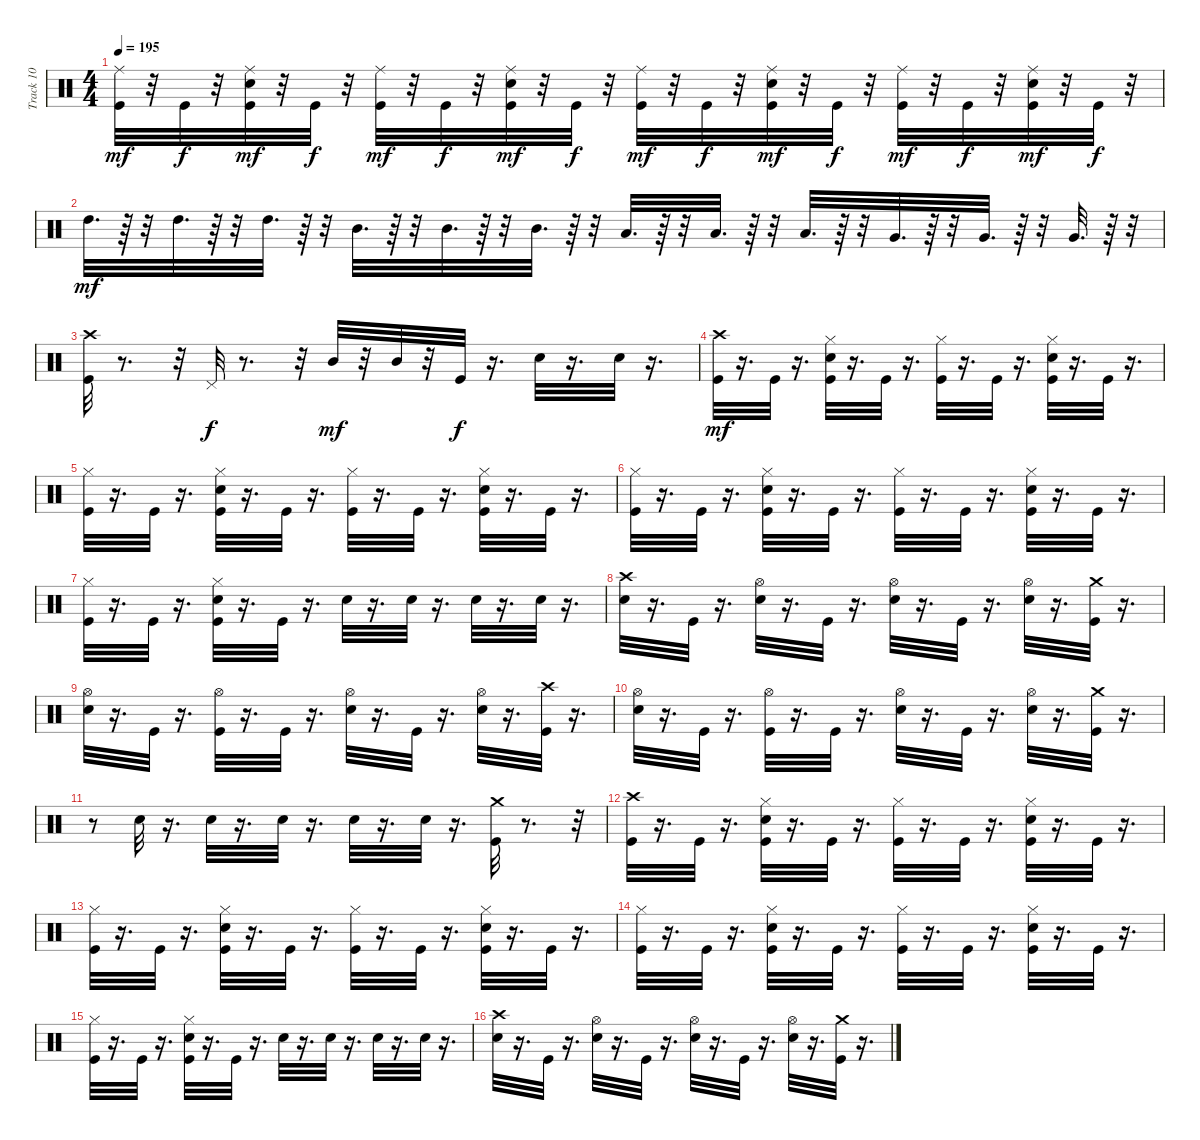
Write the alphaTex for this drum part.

\track ("Track 10" "Track 10") {instrument percussion}
\staff {score}
\articulation defaults
\ts (4 4)
\tempo 195
\clef neutral
\ks c
("Ride (middle)" "Kick (hit)").32{dy mf} r.32 "Kick (hit)".32{dy f} r.32 ("Electric Snare (hit)" "Ride (middle)" "Kick (hit)").32{dy mf} r.32 "Kick (hit)".32{dy f} r.32 ("Ride (middle)" "Kick (hit)").32{dy mf} r.32 "Kick (hit)".32{dy f} r.32 ("Ride (middle)" "Kick (hit)" "Electric Snare (hit)").32{dy mf} r.32 "Kick (hit)".32{dy f} r.32 ("Ride (middle)" "Kick (hit)").32{dy mf} r.32 "Kick (hit)".32{dy f} r.32 ("Ride (middle)" "Kick (hit)" "Electric Snare (hit)").32{dy mf} r.32 "Kick (hit)".32{dy f} r.32 ("Ride (middle)" "Kick (hit)").32{dy mf} r.32 "Kick (hit)".32{dy f} r.32 ("Electric Snare (hit)" "Ride (middle)" "Kick (hit)").32{dy mf} r.32 "Kick (hit)".32{dy f} r.32 |
"High Tom (hit)".32{d dy mf} r.64 r.32 "High Tom (hit)".32{d} r.64 r.32 "High Tom (hit)".32{d} r.64 r.32 "Mid Tom (hit)".32{d} r.64 r.32 "Mid Tom (hit)".32{d} r.64 r.32 "Mid Tom (hit)".32{d} r.64 r.32 "Low Tom (hit)".32{d} r.64 r.32 "Low Tom (hit)".32{d} r.64 r.32 "Low Tom (hit)".32{d} r.64 r.32 "Very Low Tom (hit)".32{d} r.64 r.32 "Very Low Tom (hit)".32{d} r.64 r.32 "Very Low Tom (hit)".32{d} r.64 r.32 |
("Crash high (hit)" "Kick (hit)").32 r.8{d} r.32 "Pedal Hi-Hat (hit)".32{dy f} r.8{d} r.32 "Mid Tom (hit)".32{dy mf} r.32 "Mid Tom (hit)".32 r.32 "Kick (hit)".32{dy f} r.16{d} "Electric Snare (hit)".32 r.16{d} "Electric Snare (hit)".32 r.16{d} |
("Crash high (hit)" "Kick (hit)").32{dy mf} r.16{d} "Kick (hit)".32 r.16{d} ("Electric Snare (hit)" "Kick (hit)" "Hi-Hat (closed)").32 r.16{d} "Kick (hit)".32 r.16{d} ("Kick (hit)" "Hi-Hat (closed)").32 r.16{d} "Kick (hit)".32 r.16{d} ("Electric Snare (hit)" "Kick (hit)" "Hi-Hat (closed)").32 r.16{d} "Kick (hit)".32 r.16{d} |
("Hi-Hat (closed)" "Kick (hit)").32 r.16{d} "Kick (hit)".32 r.16{d} ("Electric Snare (hit)" "Kick (hit)" "Hi-Hat (closed)").32 r.16{d} "Kick (hit)".32 r.16{d} ("Kick (hit)" "Hi-Hat (closed)").32 r.16{d} "Kick (hit)".32 r.16{d} ("Electric Snare (hit)" "Kick (hit)" "Hi-Hat (closed)").32 r.16{d} "Kick (hit)".32 r.16{d} |
("Hi-Hat (closed)" "Kick (hit)").32 r.16{d} "Kick (hit)".32 r.16{d} ("Electric Snare (hit)" "Kick (hit)" "Hi-Hat (closed)").32 r.16{d} "Kick (hit)".32 r.16{d} ("Kick (hit)" "Hi-Hat (closed)").32 r.16{d} "Kick (hit)".32 r.16{d} ("Electric Snare (hit)" "Kick (hit)" "Hi-Hat (closed)").32 r.16{d} "Kick (hit)".32 r.16{d} |
("Hi-Hat (closed)" "Kick (hit)").32 r.16{d} "Kick (hit)".32 r.16{d} ("Electric Snare (hit)" "Kick (hit)" "Hi-Hat (closed)").32 r.16{d} "Kick (hit)".32 r.16{d} "Electric Snare (hit)".32 r.16{d} "Electric Snare (hit)".32 r.16{d} "Electric Snare (hit)".32 r.16{d} "Electric Snare (hit)".32 r.16{d} |
("Crash high (hit)" "Electric Snare (hit)").32 r.16{d} "Kick (hit)".32 r.16{d} ("Electric Snare (hit)" "Hi-Hat (open)").32 r.16{d} "Kick (hit)".32 r.16{d} ("Electric Snare (hit)" "Hi-Hat (open)").32 r.16{d} "Kick (hit)".32 r.16{d} ("Hi-Hat (open)" "Electric Snare (hit)").32 r.16{d} ("Kick (hit)" "Crash medium (hit)").32 r.16{d} |
("Hi-Hat (open)" "Electric Snare (hit)").32 r.16{d} "Kick (hit)".32 r.16{d} ("Hi-Hat (open)" "Kick (hit)").32 r.16{d} "Kick (hit)".32 r.16{d} ("Hi-Hat (open)" "Electric Snare (hit)").32 r.16{d} "Kick (hit)".32 r.16{d} ("Electric Snare (hit)" "Hi-Hat (open)").32 r.16{d} ("Crash high (hit)" "Kick (hit)").32 r.16{d} |
("Electric Snare (hit)" "Hi-Hat (open)").32 r.16{d} "Kick (hit)".32 r.16{d} ("Kick (hit)" "Hi-Hat (open)").32 r.16{d} "Kick (hit)".32 r.16{d} ("Electric Snare (hit)" "Hi-Hat (open)").32 r.16{d} "Kick (hit)".32 r.16{d} ("Electric Snare (hit)" "Hi-Hat (open)").32 r.16{d} ("Kick (hit)" "Crash medium (hit)").32 r.16{d} |
r.8 "Electric Snare (hit)".32 r.16{d} "Electric Snare (hit)".32 r.16{d} "Electric Snare (hit)".32 r.16{d} "Electric Snare (hit)".32 r.16{d} "Electric Snare (hit)".32 r.16{d} ("Kick (hit)" "Crash medium (hit)").32 r.8{d} r.32 |
("Crash high (hit)" "Kick (hit)").32 r.16{d} "Kick (hit)".32 r.16{d} ("Electric Snare (hit)" "Kick (hit)" "Hi-Hat (closed)").32 r.16{d} "Kick (hit)".32 r.16{d} ("Kick (hit)" "Hi-Hat (closed)").32 r.16{d} "Kick (hit)".32 r.16{d} ("Electric Snare (hit)" "Kick (hit)" "Hi-Hat (closed)").32 r.16{d} "Kick (hit)".32 r.16{d} |
("Hi-Hat (closed)" "Kick (hit)").32 r.16{d} "Kick (hit)".32 r.16{d} ("Electric Snare (hit)" "Kick (hit)" "Hi-Hat (closed)").32 r.16{d} "Kick (hit)".32 r.16{d} ("Kick (hit)" "Hi-Hat (closed)").32 r.16{d} "Kick (hit)".32 r.16{d} ("Electric Snare (hit)" "Kick (hit)" "Hi-Hat (closed)").32 r.16{d} "Kick (hit)".32 r.16{d} |
("Hi-Hat (closed)" "Kick (hit)").32 r.16{d} "Kick (hit)".32 r.16{d} ("Electric Snare (hit)" "Kick (hit)" "Hi-Hat (closed)").32 r.16{d} "Kick (hit)".32 r.16{d} ("Kick (hit)" "Hi-Hat (closed)").32 r.16{d} "Kick (hit)".32 r.16{d} ("Electric Snare (hit)" "Kick (hit)" "Hi-Hat (closed)").32 r.16{d} "Kick (hit)".32 r.16{d} |
("Hi-Hat (closed)" "Kick (hit)").32 r.16{d} "Kick (hit)".32 r.16{d} ("Electric Snare (hit)" "Kick (hit)" "Hi-Hat (closed)").32 r.16{d} "Kick (hit)".32 r.16{d} "Electric Snare (hit)".32 r.16{d} "Electric Snare (hit)".32 r.16{d} "Electric Snare (hit)".32 r.16{d} "Electric Snare (hit)".32 r.16{d} |
("Crash high (hit)" "Electric Snare (hit)").32 r.16{d} "Kick (hit)".32 r.16{d} ("Electric Snare (hit)" "Hi-Hat (open)").32 r.16{d} "Kick (hit)".32 r.16{d} ("Electric Snare (hit)" "Hi-Hat (open)").32 r.16{d} "Kick (hit)".32 r.16{d} ("Hi-Hat (open)" "Electric Snare (hit)").32 r.16{d} ("Kick (hit)" "Crash medium (hit)").32 r.16{d}
